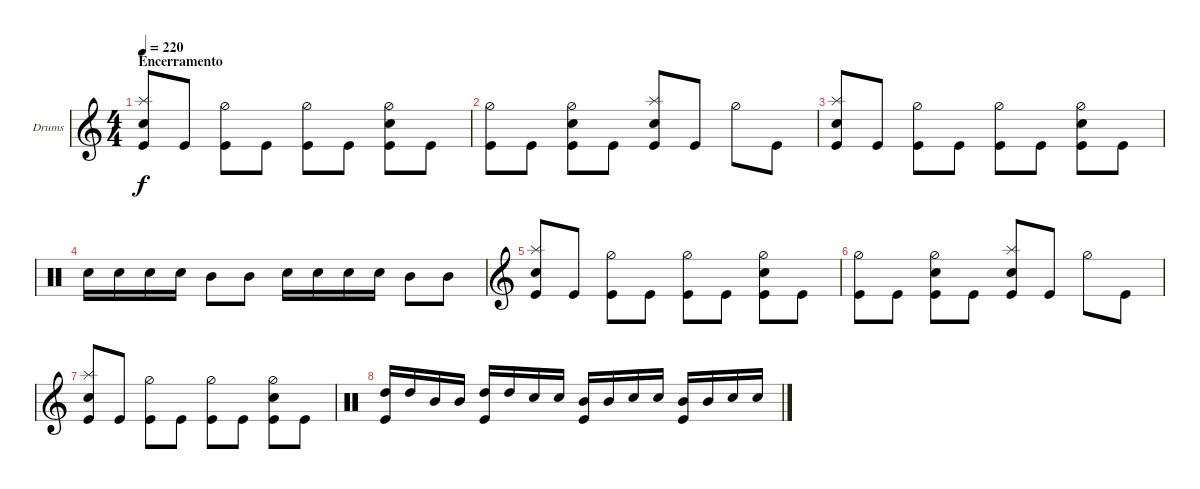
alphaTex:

\defaultSystemsLayout 4
\bracketExtendMode groupsimilarinstruments
\firstSystemTrackNameOrientation horizontal
\otherSystemsTrackNameOrientation horizontal
\track ("Drumkit" "Drums") {instrument percussion}
\staff {score}
\articulation defaults
\ts (4 4)
\section ("" "Encerramento")
\tempo 220
\clef g2
\ks c
("Snare (hit) 2" "Splash (hit)" "Kick (hit)").8{dy f} "Kick (hit)".8 ("Hi-Hat (half)" "Kick (hit)").8 "Kick (hit)".8 ("Hi-Hat (half)" "Kick (hit)").8 "Kick (hit)".8 ("Snare (hit) 2" "Hi-Hat (half)" "Kick (hit)").8 "Kick (hit)".8 |
("Hi-Hat (half)" "Kick (hit)").8 "Kick (hit)".8 ("Snare (hit) 2" "Hi-Hat (half)" "Kick (hit)").8 "Kick (hit)".8 ("Snare (hit) 2" "Splash (hit)" "Kick (hit)").8 "Kick (hit)".8 "Hi-Hat (half)".8 "Kick (hit)".8 |
("Snare (hit) 2" "Splash (hit)" "Kick (hit)").8 "Kick (hit)".8 ("Hi-Hat (half)" "Kick (hit)").8 "Kick (hit)".8 ("Hi-Hat (half)" "Kick (hit)").8 "Kick (hit)".8 ("Snare (hit) 2" "Hi-Hat (half)" "Kick (hit)").8 "Kick (hit)".8 |
\clef neutral "Snare (hit) 2".16 "Snare (hit) 2".16 "Snare (hit) 2".16 "Snare (hit) 2".16 "Mid Tom (hit)".8 "Mid Tom (hit)".8 "Snare (hit) 2".16 "Snare (hit) 2".16 "Snare (hit) 2".16 "Snare (hit) 2".16 "Mid Tom (hit)".8 "Mid Tom (hit)".8
|
\clef g2
("Snare (hit) 2" "Splash (hit)" "Kick (hit)").8 "Kick (hit)".8 ("Hi-Hat (half)" "Kick (hit)").8 "Kick (hit)".8 ("Hi-Hat (half)" "Kick (hit)").8 "Kick (hit)".8 ("Snare (hit) 2" "Hi-Hat (half)" "Kick (hit)").8 "Kick (hit)".8 |
("Hi-Hat (half)" "Kick (hit)").8 "Kick (hit)".8 ("Snare (hit) 2" "Hi-Hat (half)" "Kick (hit)").8 "Kick (hit)".8 ("Snare (hit) 2" "Splash (hit)" "Kick (hit)").8 "Kick (hit)".8 "Hi-Hat (half)".8 "Kick (hit)".8 |
("Snare (hit) 2" "Splash (hit)" "Kick (hit)").8 "Kick (hit)".8 ("Hi-Hat (half)" "Kick (hit)").8 "Kick (hit)".8 ("Hi-Hat (half)" "Kick (hit)").8 "Kick (hit)".8 ("Snare (hit) 2" "Hi-Hat (half)" "Kick (hit)").8 "Kick (hit)".8 |
\clef neutral
("High Tom (hit)" "Kick (hit)").16 "High Tom (hit)".16 "Mid Tom (hit)".16 "Mid Tom (hit)".16 ("High Tom (hit)" "Kick (hit)").16 "High Tom (hit)".16 "Snare (hit) 2".16 "Snare (hit) 2".16 ("Mid Tom (hit)" "Kick (hit)").16 "Mid Tom (hit)".16 "Snare (hit) 2".16 "Snare (hit) 2".16 ("Mid Tom (hit)" "Kick (hit)").16 "Mid Tom (hit)".16 "Snare (hit) 2".16 "Snare (hit) 2".16
